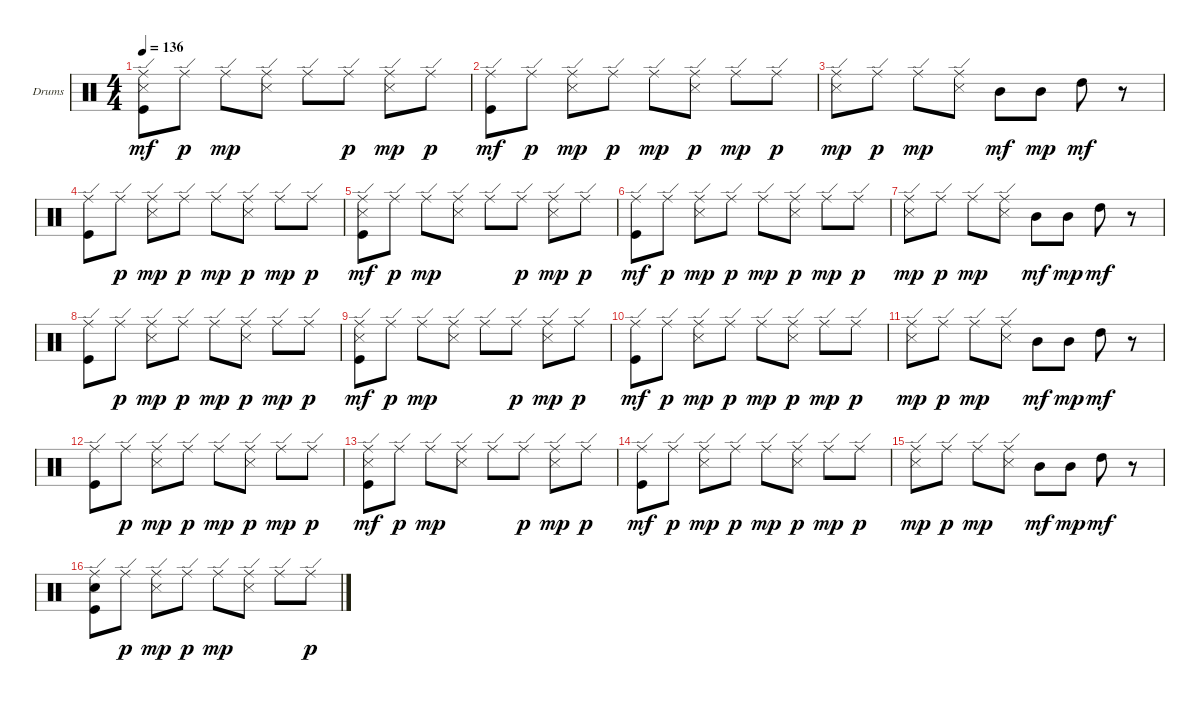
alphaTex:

\bracketExtendMode groupsimilarinstruments
\firstSystemTrackNameOrientation horizontal
\otherSystemsTrackNameOrientation horizontal
\track ("Drumkit" "Drums") {instrument percussion}
\staff {score}
\articulation defaults
\ts (4 4)
\tempo 136
\clef neutral
\ks c
("Kick (hit)" "Snare (side stick) 3" "Ride (edge)").8{dy mf} "Ride (edge)".8{dy p} "Ride (edge)".8{dy mp} ("Snare (side stick) 3" "Ride (edge)").8 "Ride (edge)".8 "Ride (edge)".8{dy p} ("Snare (side stick) 3" "Ride (edge)").8{dy mp} "Ride (edge)".8{dy p} |
("Kick (hit)" "Ride (edge)").8{dy mf} "Ride (edge)".8{dy p} ("Snare (side stick) 3" "Ride (edge)").8{dy mp} "Ride (edge)".8{dy p} "Ride (edge)".8{dy mp} ("Snare (side stick) 3" "Ride (edge)").8{dy p} "Ride (edge)".8{dy mp} "Ride (edge)".8{dy p} |
("Snare (side stick) 3" "Ride (edge)").8{dy mp} "Ride (edge)".8{dy p} "Ride (edge)".8{dy mp} ("Snare (side stick) 3" "Ride (edge)").8 "Mid Tom (hit)".8{dy mf} "Mid Tom (hit)".8{dy mp} "High Tom (hit)".8{dy mf} r.8 |
("Kick (hit)" "Ride (edge)").8 "Ride (edge)".8{dy p} ("Snare (side stick) 3" "Ride (edge)").8{dy mp} "Ride (edge)".8{dy p} "Ride (edge)".8{dy mp} ("Snare (side stick) 3" "Ride (edge)").8{dy p} "Ride (edge)".8{dy mp} "Ride (edge)".8{dy p} |
("Kick (hit)" "Snare (side stick) 3" "Ride (edge)").8{dy mf} "Ride (edge)".8{dy p} "Ride (edge)".8{dy mp} ("Snare (side stick) 3" "Ride (edge)").8 "Ride (edge)".8 "Ride (edge)".8{dy p} ("Snare (side stick) 3" "Ride (edge)").8{dy mp} "Ride (edge)".8{dy p} |
("Kick (hit)" "Ride (edge)").8{dy mf} "Ride (edge)".8{dy p} ("Snare (side stick) 3" "Ride (edge)").8{dy mp} "Ride (edge)".8{dy p} "Ride (edge)".8{dy mp} ("Snare (side stick) 3" "Ride (edge)").8{dy p} "Ride (edge)".8{dy mp} "Ride (edge)".8{dy p} |
("Snare (side stick) 3" "Ride (edge)").8{dy mp} "Ride (edge)".8{dy p} "Ride (edge)".8{dy mp} ("Snare (side stick) 3" "Ride (edge)").8 "Mid Tom (hit)".8{dy mf} "Mid Tom (hit)".8{dy mp} "High Tom (hit)".8{dy mf} r.8 |
("Kick (hit)" "Ride (edge)").8 "Ride (edge)".8{dy p} ("Snare (side stick) 3" "Ride (edge)").8{dy mp} "Ride (edge)".8{dy p} "Ride (edge)".8{dy mp} ("Snare (side stick) 3" "Ride (edge)").8{dy p} "Ride (edge)".8{dy mp} "Ride (edge)".8{dy p} |
("Kick (hit)" "Snare (side stick) 3" "Ride (edge)").8{dy mf} "Ride (edge)".8{dy p} "Ride (edge)".8{dy mp} ("Snare (side stick) 3" "Ride (edge)").8 "Ride (edge)".8 "Ride (edge)".8{dy p} ("Snare (side stick) 3" "Ride (edge)").8{dy mp} "Ride (edge)".8{dy p} |
("Kick (hit)" "Ride (edge)").8{dy mf} "Ride (edge)".8{dy p} ("Snare (side stick) 3" "Ride (edge)").8{dy mp} "Ride (edge)".8{dy p} "Ride (edge)".8{dy mp} ("Snare (side stick) 3" "Ride (edge)").8{dy p} "Ride (edge)".8{dy mp} "Ride (edge)".8{dy p} |
("Snare (side stick) 3" "Ride (edge)").8{dy mp} "Ride (edge)".8{dy p} "Ride (edge)".8{dy mp} ("Snare (side stick) 3" "Ride (edge)").8 "Mid Tom (hit)".8{dy mf} "Mid Tom (hit)".8{dy mp} "High Tom (hit)".8{dy mf} r.8 |
("Kick (hit)" "Ride (edge)").8 "Ride (edge)".8{dy p} ("Snare (side stick) 3" "Ride (edge)").8{dy mp} "Ride (edge)".8{dy p} "Ride (edge)".8{dy mp} ("Snare (side stick) 3" "Ride (edge)").8{dy p} "Ride (edge)".8{dy mp} "Ride (edge)".8{dy p} |
("Kick (hit)" "Snare (side stick) 3" "Ride (edge)").8{dy mf} "Ride (edge)".8{dy p} "Ride (edge)".8{dy mp} ("Snare (side stick) 3" "Ride (edge)").8 "Ride (edge)".8 "Ride (edge)".8{dy p} ("Snare (side stick) 3" "Ride (edge)").8{dy mp} "Ride (edge)".8{dy p} |
("Kick (hit)" "Ride (edge)").8{dy mf} "Ride (edge)".8{dy p} ("Snare (side stick) 3" "Ride (edge)").8{dy mp} "Ride (edge)".8{dy p} "Ride (edge)".8{dy mp} ("Snare (side stick) 3" "Ride (edge)").8{dy p} "Ride (edge)".8{dy mp} "Ride (edge)".8{dy p} |
("Snare (side stick) 3" "Ride (edge)").8{dy mp} "Ride (edge)".8{dy p} "Ride (edge)".8{dy mp} ("Snare (side stick) 3" "Ride (edge)").8 "Mid Tom (hit)".8{dy mf} "Mid Tom (hit)".8{dy mp} "High Tom (hit)".8{dy mf} r.8 |
("Kick (hit)" "Snare (hit) 2" "Ride (edge)").8 "Ride (edge)".8{dy p} ("Snare (side stick) 3" "Ride (edge)").8{dy mp} "Ride (edge)".8{dy p} "Ride (edge)".8{dy mp} ("Snare (side stick) 3" "Ride (edge)").8 "Ride (edge)".8 "Ride (edge)".8{dy p}
